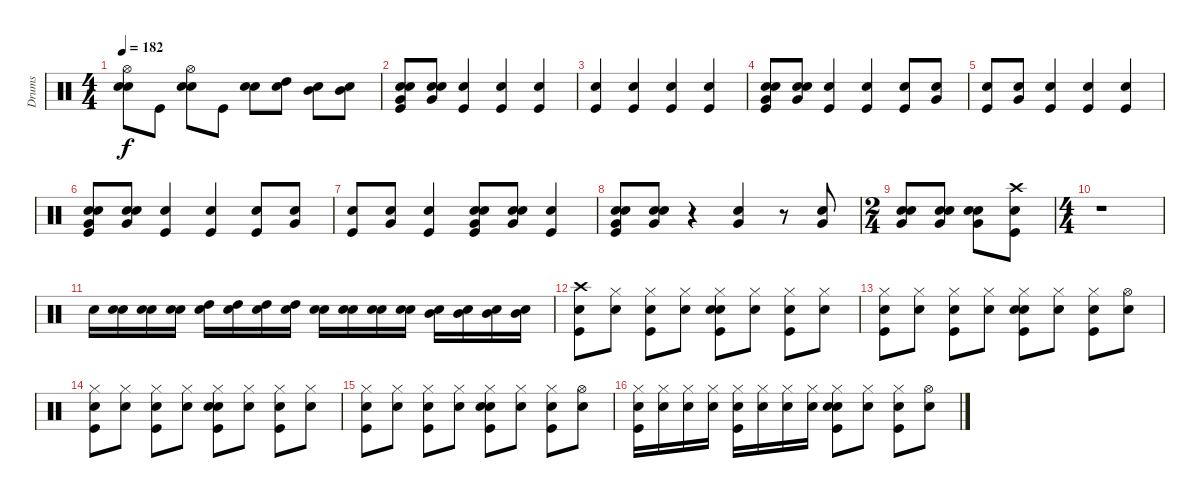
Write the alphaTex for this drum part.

\track ("Drums" "Drums") {instrument percussion}
\staff {score}
\articulation defaults
\ts (4 4)
\tempo 182
\clef neutral
\ks c
("Snare (hit)" "Electric Snare (hit)" "Hi-Hat (open)").8{dy f} "Kick (hit)".8 ("Snare (hit)" "Electric Snare (hit)" "Hi-Hat (open)").8 "Kick (hit)".8 ("Snare (hit)" "Electric Snare (hit)").8 ("Snare (hit)" "High Tom (hit)").8 ("Snare (hit)" "Mid Tom (hit)").8 ("Snare (hit)" "Mid Tom (hit)").8 |
("Snare (hit)" "Electric Snare (hit)" "Very Low Tom (hit)" "Kick (hit)").8 ("Snare (hit)" "Electric Snare (hit)" "Very Low Tom (hit)").8 ("Snare (hit)" "Kick (hit)").4 ("Snare (hit)" "Kick (hit)").4 ("Snare (hit)" "Kick (hit)").4 |
("Snare (hit)" "Kick (hit)").4 ("Snare (hit)" "Kick (hit)").4 ("Snare (hit)" "Kick (hit)").4 ("Snare (hit)" "Kick (hit)").4 |
("Snare (hit)" "Electric Snare (hit)" "Very Low Tom (hit)" "Kick (hit)").8 ("Snare (hit)" "Electric Snare (hit)" "Very Low Tom (hit)").8 ("Snare (hit)" "Kick (hit)").4 ("Snare (hit)" "Kick (hit)").4 ("Snare (hit)" "Kick (hit)").8 ("Electric Snare (hit)" "Very Low Tom (hit)").8 |
("Snare (hit)" "Kick (hit)").8 ("Electric Snare (hit)" "Very Low Tom (hit)").8 ("Snare (hit)" "Kick (hit)").4 ("Snare (hit)" "Kick (hit)").4 ("Snare (hit)" "Kick (hit)").4 |
("Snare (hit)" "Electric Snare (hit)" "Very Low Tom (hit)" "Kick (hit)").8 ("Snare (hit)" "Electric Snare (hit)" "Very Low Tom (hit)").8 ("Snare (hit)" "Kick (hit)").4 ("Snare (hit)" "Kick (hit)").4 ("Snare (hit)" "Kick (hit)").8 ("Electric Snare (hit)" "Very Low Tom (hit)").8 |
("Snare (hit)" "Kick (hit)").8 ("Electric Snare (hit)" "Very Low Tom (hit)").8 ("Snare (hit)" "Kick (hit)").4 ("Snare (hit)" "Electric Snare (hit)" "Very Low Tom (hit)" "Kick (hit)").8 ("Snare (hit)" "Electric Snare (hit)" "Very Low Tom (hit)").8 ("Snare (hit)" "Kick (hit)").4 |
("Snare (hit)" "Electric Snare (hit)" "Very Low Tom (hit)" "Kick (hit)").8 ("Snare (hit)" "Electric Snare (hit)" "Very Low Tom (hit)").8 r.4 ("Electric Snare (hit)" "Very Low Tom (hit)").4 r.8 ("Electric Snare (hit)" "Very Low Tom (hit)").8 |
\ts (2 4)
("Snare (hit)" "Electric Snare (hit)" "Very Low Tom (hit)").8 ("Snare (hit)" "Electric Snare (hit)" "Very Low Tom (hit)").8 ("Snare (hit)" "Electric Snare (hit)" "Very Low Tom (hit)").8 ("Snare (hit)" "Kick (hit)" "Crash high (hit)").8 |
\ts (4 4)
r.1 |
"Electric Snare (hit)".16 ("Snare (hit)" "Electric Snare (hit)").16 ("Snare (hit)" "Electric Snare (hit)").16 ("Snare (hit)" "Electric Snare (hit)").16 ("Snare (hit)" "High Tom (hit)").16 ("Snare (hit)" "High Tom (hit)").16 ("Snare (hit)" "High Tom (hit)").16 ("Snare (hit)" "High Tom (hit)").16 ("Snare (hit)" "Electric Snare (hit)").16 ("Snare (hit)" "Electric Snare (hit)").16 ("Snare (hit)" "Electric Snare (hit)").16 ("Snare (hit)" "Electric Snare (hit)").16 ("Snare (hit)" "Mid Tom (hit)").16 ("Snare (hit)" "Mid Tom (hit)").16 ("Snare (hit)" "Mid Tom (hit)").16 ("Snare (hit)" "Mid Tom (hit)").16 |
("Snare (hit)" "Kick (hit)" "Crash high (hit)").8 ("Snare (hit)" "Hi-Hat (closed)").8 ("Snare (hit)" "Kick (hit)" "Hi-Hat (closed)").8 ("Snare (hit)" "Hi-Hat (closed)").8 ("Snare (hit)" "Kick (hit)" "Electric Snare (hit)" "Hi-Hat (closed)").8 ("Snare (hit)" "Hi-Hat (closed)").8 ("Snare (hit)" "Kick (hit)" "Hi-Hat (closed)").8 ("Snare (hit)" "Hi-Hat (closed)").8 |
("Snare (hit)" "Kick (hit)" "Hi-Hat (closed)").8 ("Snare (hit)" "Hi-Hat (closed)").8 ("Snare (hit)" "Kick (hit)" "Hi-Hat (closed)").8 ("Snare (hit)" "Hi-Hat (closed)").8 ("Snare (hit)" "Kick (hit)" "Electric Snare (hit)" "Hi-Hat (closed)").8 ("Snare (hit)" "Hi-Hat (closed)").8 ("Snare (hit)" "Kick (hit)" "Hi-Hat (closed)").8 ("Snare (hit)" "Hi-Hat (open)").8 |
("Snare (hit)" "Kick (hit)" "Hi-Hat (closed)").8 ("Snare (hit)" "Hi-Hat (closed)").8 ("Snare (hit)" "Kick (hit)" "Hi-Hat (closed)").8 ("Snare (hit)" "Hi-Hat (closed)").8 ("Snare (hit)" "Kick (hit)" "Electric Snare (hit)" "Hi-Hat (closed)").8 ("Snare (hit)" "Hi-Hat (closed)").8 ("Snare (hit)" "Kick (hit)" "Hi-Hat (closed)").8 ("Snare (hit)" "Hi-Hat (closed)").8 |
("Snare (hit)" "Kick (hit)" "Hi-Hat (closed)").8 ("Snare (hit)" "Hi-Hat (closed)").8 ("Snare (hit)" "Kick (hit)" "Hi-Hat (closed)").8 ("Snare (hit)" "Hi-Hat (closed)").8 ("Snare (hit)" "Kick (hit)" "Electric Snare (hit)" "Hi-Hat (closed)").8 ("Snare (hit)" "Hi-Hat (closed)").8 ("Snare (hit)" "Kick (hit)" "Hi-Hat (closed)").8 ("Snare (hit)" "Hi-Hat (open)").8 |
("Snare (hit)" "Kick (hit)" "Hi-Hat (closed)").16 ("Snare (hit)" "Hi-Hat (closed)").16 ("Snare (hit)" "Hi-Hat (closed)").16 ("Snare (hit)" "Hi-Hat (closed)").16 ("Snare (hit)" "Kick (hit)" "Hi-Hat (closed)").16 ("Snare (hit)" "Hi-Hat (closed)").16 ("Snare (hit)" "Hi-Hat (closed)").16 ("Snare (hit)" "Hi-Hat (closed)").16 ("Snare (hit)" "Kick (hit)" "Electric Snare (hit)" "Hi-Hat (closed)").8 ("Snare (hit)" "Hi-Hat (closed)").8 ("Snare (hit)" "Kick (hit)" "Hi-Hat (closed)").8 ("Snare (hit)" "Hi-Hat (open)").8
